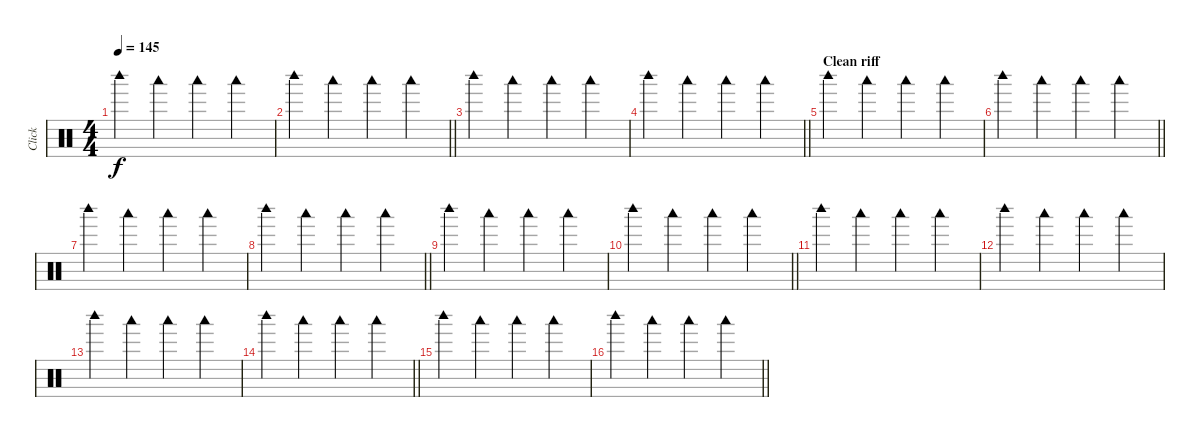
\track ("Click" "Click") {mute instrument percussion}
\staff {score}
\articulation defaults
\ts (4 4)
\tempo 145
\clef neutral
\ks c "Woodblock high (hit)".4{dy f} "Woodblock low (hit)".4 "Woodblock low (hit)".4 "Woodblock low (hit)".4
|
\barLineRight lightlight "Woodblock high (hit)".4 "Woodblock low (hit)".4 "Woodblock low (hit)".4 "Woodblock low (hit)".4
|
"Woodblock high (hit)".4 "Woodblock low (hit)".4 "Woodblock low (hit)".4 "Woodblock low (hit)".4 |
\barLineRight lightlight "Woodblock high (hit)".4 "Woodblock low (hit)".4 "Woodblock low (hit)".4 "Woodblock low (hit)".4
|
\section ("" "Clean riff")
"Woodblock high (hit)".4 "Woodblock low (hit)".4 "Woodblock low (hit)".4 "Woodblock low (hit)".4 |
\barLineRight lightlight "Woodblock high (hit)".4 "Woodblock low (hit)".4 "Woodblock low (hit)".4 "Woodblock low (hit)".4
|
"Woodblock high (hit)".4 "Woodblock low (hit)".4 "Woodblock low (hit)".4 "Woodblock low (hit)".4 |
\barLineRight lightlight "Woodblock high (hit)".4 "Woodblock low (hit)".4 "Woodblock low (hit)".4 "Woodblock low (hit)".4
|
\section ("" "")
"Woodblock high (hit)".4 "Woodblock low (hit)".4 "Woodblock low (hit)".4 "Woodblock low (hit)".4 |
\barLineRight lightlight "Woodblock high (hit)".4 "Woodblock low (hit)".4 "Woodblock low (hit)".4 "Woodblock low (hit)".4
|
"Woodblock high (hit)".4 "Woodblock low (hit)".4 "Woodblock low (hit)".4 "Woodblock low (hit)".4 |
"Woodblock high (hit)".4 "Woodblock low (hit)".4 "Woodblock low (hit)".4 "Woodblock low (hit)".4 |
"Woodblock high (hit)".4 "Woodblock low (hit)".4 "Woodblock low (hit)".4 "Woodblock low (hit)".4 |
\barLineRight lightlight "Woodblock high (hit)".4 "Woodblock low (hit)".4 "Woodblock low (hit)".4 "Woodblock low (hit)".4
|
"Woodblock high (hit)".4 "Woodblock low (hit)".4 "Woodblock low (hit)".4 "Woodblock low (hit)".4 |
\barLineRight lightlight "Woodblock high (hit)".4 "Woodblock low (hit)".4 "Woodblock low (hit)".4 "Woodblock low (hit)".4
